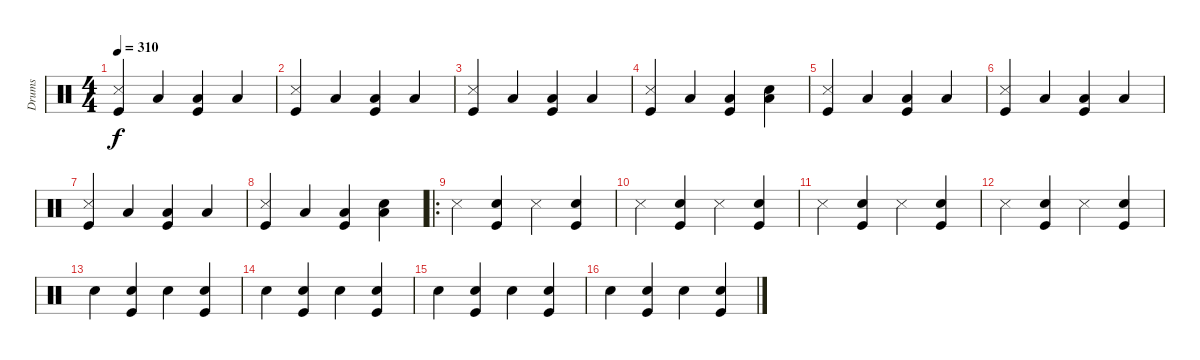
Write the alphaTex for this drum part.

\track ("Drums" "Drums") {instrument percussion}
\staff {score}
\articulation defaults
\ts (4 4)
\tempo 310
\clef neutral
\ks c
("Snare (side stick) 3" "Kick (hit)").4{dy f} "Low Floor Tom (hit)".4 ("Low Tom (hit)" "Kick (hit)").4 "Low Floor Tom (hit)".4 |
("Snare (side stick) 3" "Kick (hit)").4 "Low Floor Tom (hit)".4 ("Low Tom (hit)" "Kick (hit)").4 "Low Floor Tom (hit)".4 |
("Snare (side stick) 3" "Kick (hit)").4 "Low Floor Tom (hit)".4 ("Low Tom (hit)" "Kick (hit)").4 "Low Floor Tom (hit)".4 |
("Snare (side stick) 3" "Kick (hit)").4 "Low Floor Tom (hit)".4 ("Low Tom (hit)" "Kick (hit)").4 ("Snare (hit) 2" "Low Floor Tom (hit)").4 |
("Snare (side stick) 3" "Kick (hit)").4 "Low Floor Tom (hit)".4 ("Low Tom (hit)" "Kick (hit)").4 "Low Floor Tom (hit)".4 |
("Snare (side stick) 3" "Kick (hit)").4 "Low Floor Tom (hit)".4 ("Low Tom (hit)" "Kick (hit)").4 "Low Floor Tom (hit)".4 |
("Snare (side stick) 3" "Kick (hit)").4 "Low Floor Tom (hit)".4 ("Low Tom (hit)" "Kick (hit)").4 "Low Floor Tom (hit)".4 |
("Snare (side stick) 3" "Kick (hit)").4 "Low Floor Tom (hit)".4 ("Low Tom (hit)" "Kick (hit)").4 ("Snare (hit) 2" "Low Floor Tom (hit)").4 |
\ro "Snare (side stick) 3".4{volume 7}
("Snare (hit) 2" "Kick (hit)").4 "Snare (side stick) 3".4 ("Snare (hit) 2" "Kick (hit)").4 |
"Snare (side stick) 3".4 ("Snare (hit) 2" "Kick (hit)").4 "Snare (side stick) 3".4 ("Snare (hit) 2" "Kick (hit)").4 |
"Snare (side stick) 3".4 ("Snare (hit) 2" "Kick (hit)").4 "Snare (side stick) 3".4 ("Snare (hit) 2" "Kick (hit)").4 |
"Snare (side stick) 3".4 ("Snare (hit) 2" "Kick (hit)").4 "Snare (side stick) 3".4 ("Snare (hit) 2" "Kick (hit)").4 |
"Snare (hit) 2".4 ("Snare (hit) 2" "Kick (hit)").4 "Snare (hit) 2".4 ("Snare (hit) 2" "Kick (hit)").4 |
"Snare (hit) 2".4 ("Snare (hit) 2" "Kick (hit)").4 "Snare (hit) 2".4 ("Snare (hit) 2" "Kick (hit)").4 |
"Snare (hit) 2".4 ("Snare (hit) 2" "Kick (hit)").4 "Snare (hit) 2".4 ("Snare (hit) 2" "Kick (hit)").4 |
"Snare (hit) 2".4 ("Snare (hit) 2" "Kick (hit)").4 "Snare (hit) 2".4 ("Snare (hit) 2" "Kick (hit)").4
